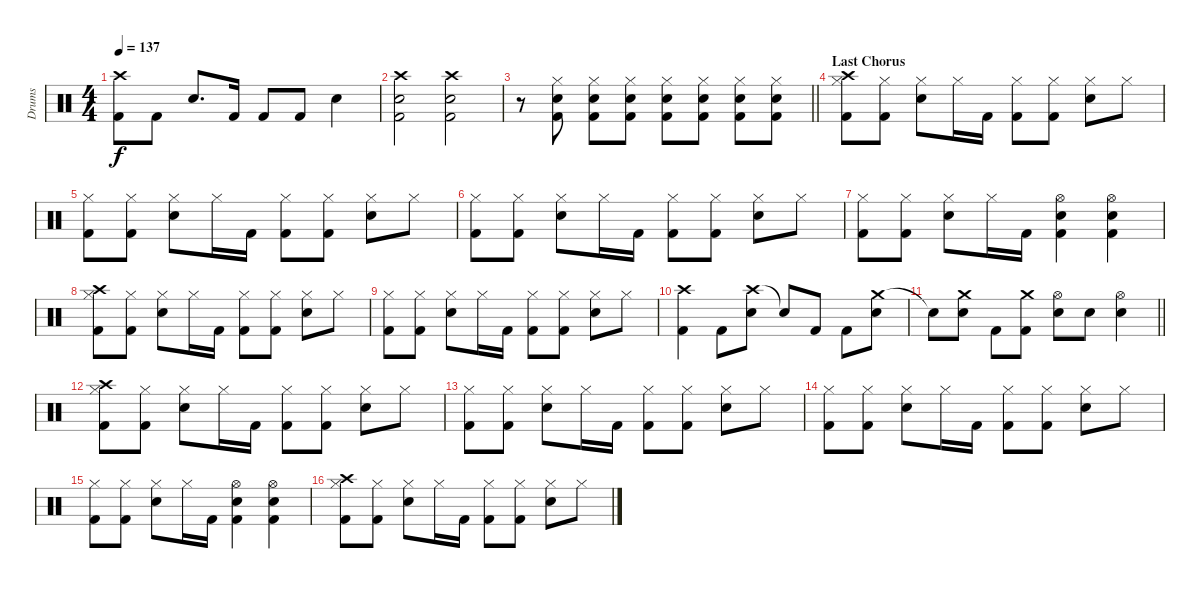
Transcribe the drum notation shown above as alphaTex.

\track ("Drums" "Drums") {instrument percussion}
\staff {score}
\articulation defaults
\ts (4 4)
\tempo 137
\clef neutral
\ks c
("Crash high (hit)" "Kick (hit) 2").8{dy f} "Kick (hit) 2".8 "Snare (hit) 2".8{d} "Kick (hit) 2".16 "Kick (hit) 2".8 "Kick (hit) 2".8 "Snare (hit) 2".4 |
("Crash high (hit)" "Snare (hit) 2" "Kick (hit) 2").2 ("Crash high (hit)" "Snare (hit) 2" "Kick (hit) 2").2 |
\barLineRight lightlight
r.8 ("Hi-Hat (closed)" "Snare (hit) 2" "Kick (hit) 2").8 ("Hi-Hat (closed)" "Snare (hit) 2" "Kick (hit) 2").8 ("Hi-Hat (closed)" "Snare (hit) 2" "Kick (hit) 2").8 ("Hi-Hat (closed)" "Snare (hit) 2" "Kick (hit) 2").8 ("Hi-Hat (closed)" "Snare (hit) 2" "Kick (hit) 2").8 ("Hi-Hat (closed)" "Snare (hit) 2" "Kick (hit) 2").8 ("Hi-Hat (closed)" "Snare (hit) 2" "Kick (hit) 2").8 |
\section ("" "Last Chorus")
("Hi-Hat (closed)" "Crash high (hit)" "Kick (hit) 2").8 ("Hi-Hat (closed)" "Kick (hit) 2").8 ("Hi-Hat (closed)" "Snare (hit) 2").8 "Hi-Hat (closed)".16 "Kick (hit) 2".16 ("Hi-Hat (closed)" "Kick (hit) 2").8 ("Hi-Hat (closed)" "Kick (hit) 2").8 ("Hi-Hat (closed)" "Snare (hit) 2").8 "Hi-Hat (closed)".8 |
("Hi-Hat (closed)" "Kick (hit) 2").8 ("Hi-Hat (closed)" "Kick (hit) 2").8 ("Hi-Hat (closed)" "Snare (hit) 2").8 "Hi-Hat (closed)".16 "Kick (hit) 2".16 ("Hi-Hat (closed)" "Kick (hit) 2").8 ("Hi-Hat (closed)" "Kick (hit) 2").8 ("Hi-Hat (closed)" "Snare (hit) 2").8 "Hi-Hat (closed)".8 |
("Hi-Hat (closed)" "Kick (hit) 2").8 ("Hi-Hat (closed)" "Kick (hit) 2").8 ("Hi-Hat (closed)" "Snare (hit) 2").8 "Hi-Hat (closed)".16 "Kick (hit) 2".16 ("Hi-Hat (closed)" "Kick (hit) 2").8 ("Hi-Hat (closed)" "Kick (hit) 2").8 ("Hi-Hat (closed)" "Snare (hit) 2").8 "Hi-Hat (closed)".8 |
("Hi-Hat (closed)" "Kick (hit) 2").8 ("Hi-Hat (closed)" "Kick (hit) 2").8 ("Hi-Hat (closed)" "Snare (hit) 2").8 "Hi-Hat (closed)".16 "Kick (hit) 2".16 ("Hi-Hat (open)" "Snare (hit) 2" "Kick (hit) 2").4 ("Hi-Hat (open)" "Snare (hit) 2" "Kick (hit) 2").4 |
("Hi-Hat (closed)" "Crash high (hit)" "Kick (hit) 2").8 ("Hi-Hat (closed)" "Kick (hit) 2").8 ("Hi-Hat (closed)" "Snare (hit) 2").8 "Hi-Hat (closed)".16 "Kick (hit) 2".16 ("Hi-Hat (closed)" "Kick (hit) 2").8 ("Hi-Hat (closed)" "Kick (hit) 2").8 ("Hi-Hat (closed)" "Snare (hit) 2").8 "Hi-Hat (closed)".8 |
("Hi-Hat (closed)" "Kick (hit) 2").8 ("Hi-Hat (closed)" "Kick (hit) 2").8 ("Hi-Hat (closed)" "Snare (hit) 2").8 "Hi-Hat (closed)".16 "Kick (hit) 2".16 ("Hi-Hat (closed)" "Kick (hit) 2").8 ("Hi-Hat (closed)" "Kick (hit) 2").8 ("Hi-Hat (closed)" "Snare (hit) 2").8 "Hi-Hat (closed)".8 |
("Crash high (hit)" "Kick (hit) 2").4 "Kick (hit) 2".8 ("Crash high (hit)" "Snare (hit) 2").8 "Snare (hit)"{t}.8 "Kick (hit) 2".8 "Kick (hit) 2".8 ("Crash medium (hit)" "Snare (hit) 2").8 |
\barLineRight lightlight "Snare (hit)"{t}.8
("Crash medium (hit)" "Snare (hit) 2").8 "Kick (hit) 2".8 ("Crash medium (hit)" "Kick (hit) 2").8 ("Hi-Hat (open)" "Snare (hit) 2").8 "Snare (hit) 2".8 ("Hi-Hat (open)" "Snare (hit) 2").4 |
("Hi-Hat (closed)" "Crash high (hit)" "Kick (hit) 2").8 ("Hi-Hat (closed)" "Kick (hit) 2").8 ("Hi-Hat (closed)" "Snare (hit) 2").8 "Hi-Hat (closed)".16 "Kick (hit) 2".16 ("Hi-Hat (closed)" "Kick (hit) 2").8 ("Hi-Hat (closed)" "Kick (hit) 2").8 ("Hi-Hat (closed)" "Snare (hit) 2").8 "Hi-Hat (closed)".8 |
("Hi-Hat (closed)" "Kick (hit) 2").8 ("Hi-Hat (closed)" "Kick (hit) 2").8 ("Hi-Hat (closed)" "Snare (hit) 2").8 "Hi-Hat (closed)".16 "Kick (hit) 2".16 ("Hi-Hat (closed)" "Kick (hit) 2").8 ("Hi-Hat (closed)" "Kick (hit) 2").8 ("Hi-Hat (closed)" "Snare (hit) 2").8 "Hi-Hat (closed)".8 |
("Hi-Hat (closed)" "Kick (hit) 2").8 ("Hi-Hat (closed)" "Kick (hit) 2").8 ("Hi-Hat (closed)" "Snare (hit) 2").8 "Hi-Hat (closed)".16 "Kick (hit) 2".16 ("Hi-Hat (closed)" "Kick (hit) 2").8 ("Hi-Hat (closed)" "Kick (hit) 2").8 ("Hi-Hat (closed)" "Snare (hit) 2").8 "Hi-Hat (closed)".8 |
("Hi-Hat (closed)" "Kick (hit) 2").8 ("Hi-Hat (closed)" "Kick (hit) 2").8 ("Hi-Hat (closed)" "Snare (hit) 2").8 "Hi-Hat (closed)".16 "Kick (hit) 2".16 ("Hi-Hat (open)" "Snare (hit) 2" "Kick (hit) 2").4 ("Hi-Hat (open)" "Snare (hit) 2" "Kick (hit) 2").4 |
("Hi-Hat (closed)" "Crash high (hit)" "Kick (hit) 2").8 ("Hi-Hat (closed)" "Kick (hit) 2").8 ("Hi-Hat (closed)" "Snare (hit) 2").8 "Hi-Hat (closed)".16 "Kick (hit) 2".16 ("Hi-Hat (closed)" "Kick (hit) 2").8 ("Hi-Hat (closed)" "Kick (hit) 2").8 ("Hi-Hat (closed)" "Snare (hit) 2").8 "Hi-Hat (closed)".8
